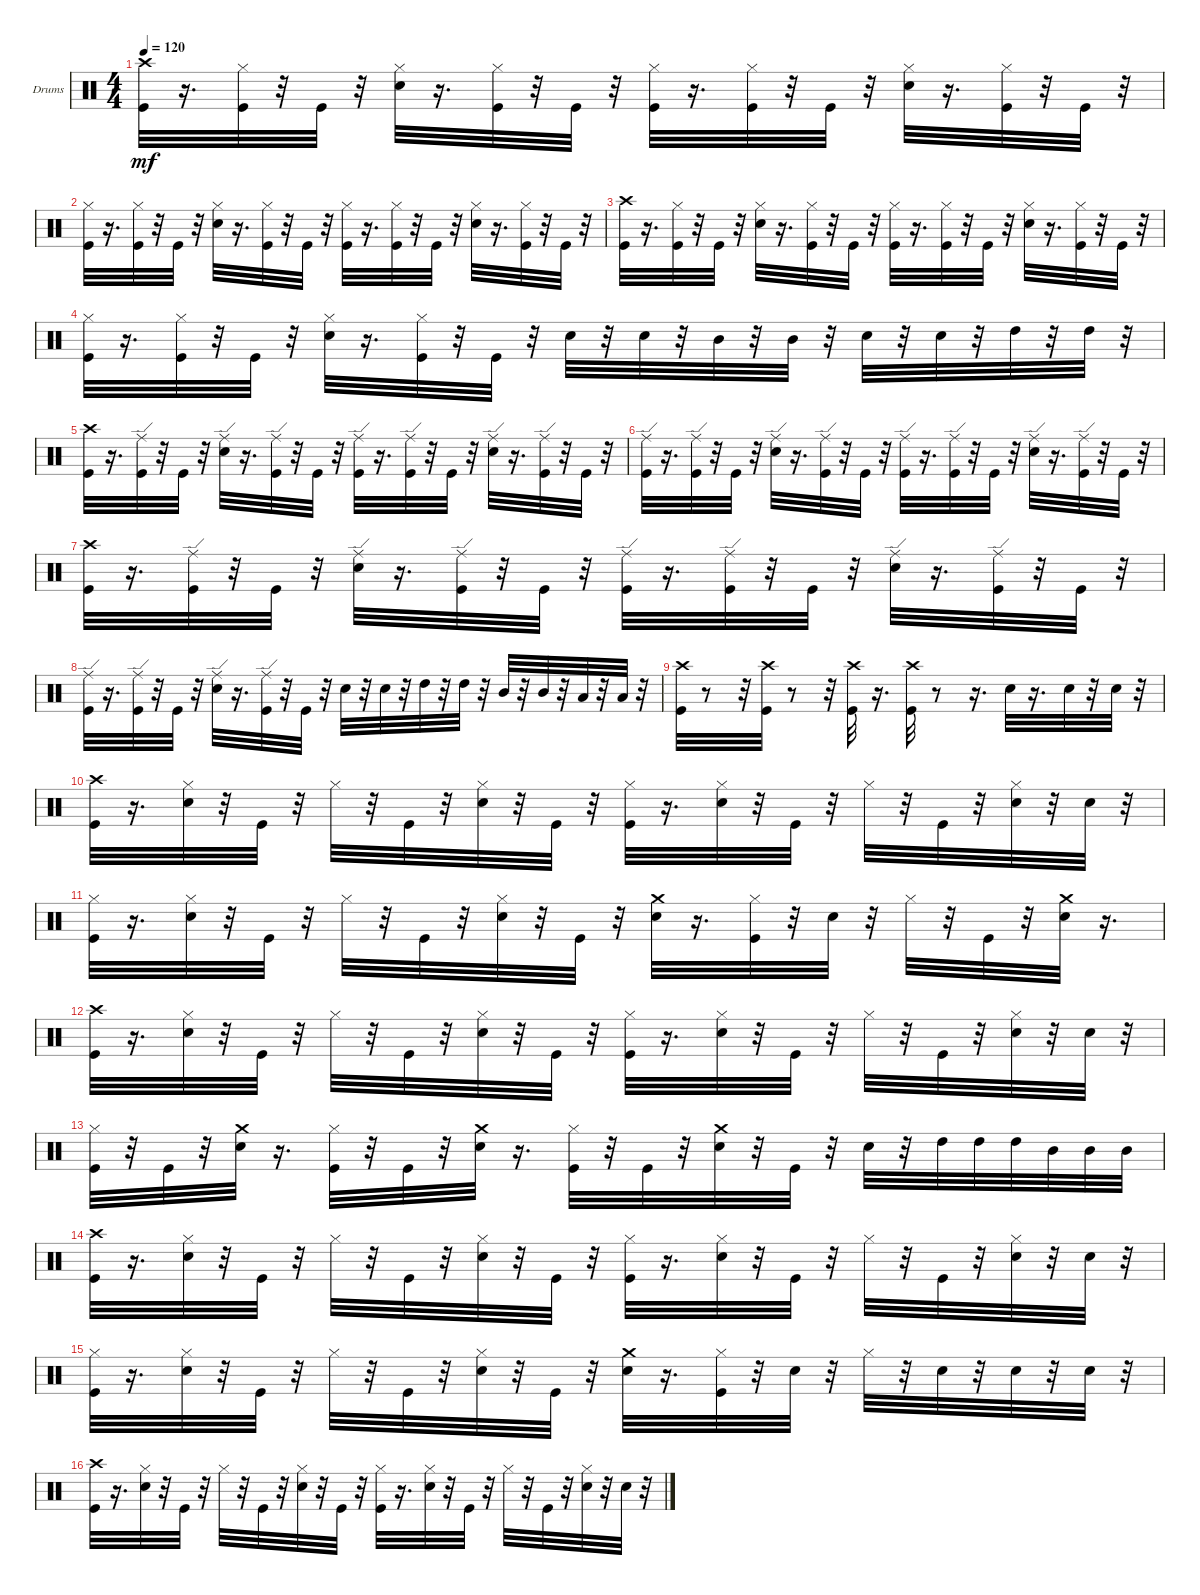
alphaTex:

\bracketExtendMode groupsimilarinstruments
\firstSystemTrackNameOrientation horizontal
\otherSystemsTrackNameOrientation horizontal
\track ("" "Drums") {instrument percussion}
\staff {score}
\articulation defaults
\ts (4 4)
\tempo 120
\clef neutral
\ks c
("Crash high (hit)" "Kick (hit)").32{dy mf} r.16{d} ("Hi-Hat (closed)" "Kick (hit)").32 r.32 "Kick (hit)".32 r.32 ("Hi-Hat (closed)" "Snare (hit) 2").32 r.16{d} ("Hi-Hat (closed)" "Kick (hit)").32 r.32 "Kick (hit)".32 r.32 ("Hi-Hat (closed)" "Kick (hit)").32 r.16{d} ("Hi-Hat (closed)" "Kick (hit)").32 r.32 "Kick (hit)".32 r.32 ("Hi-Hat (closed)" "Snare (hit) 2").32 r.16{d} ("Hi-Hat (closed)" "Kick (hit)").32 r.32 "Kick (hit)".32 r.32 |
("Hi-Hat (closed)" "Kick (hit)").32 r.16{d} ("Hi-Hat (closed)" "Kick (hit)").32 r.32 "Kick (hit)".32 r.32 ("Hi-Hat (closed)" "Snare (hit) 2").32 r.16{d} ("Hi-Hat (closed)" "Kick (hit)").32 r.32 "Kick (hit)".32 r.32 ("Hi-Hat (closed)" "Kick (hit)").32 r.16{d} ("Hi-Hat (closed)" "Kick (hit)").32 r.32 "Kick (hit)".32 r.32 ("Hi-Hat (closed)" "Snare (hit) 2").32 r.16{d} ("Hi-Hat (closed)" "Kick (hit)").32 r.32 "Kick (hit)".32 r.32 |
("Crash high (hit)" "Kick (hit)").32 r.16{d} ("Hi-Hat (closed)" "Kick (hit)").32 r.32 "Kick (hit)".32 r.32 ("Hi-Hat (closed)" "Snare (hit) 2").32 r.16{d} ("Hi-Hat (closed)" "Kick (hit)").32 r.32 "Kick (hit)".32 r.32 ("Hi-Hat (closed)" "Kick (hit)").32 r.16{d} ("Hi-Hat (closed)" "Kick (hit)").32 r.32 "Kick (hit)".32 r.32 ("Hi-Hat (closed)" "Snare (hit) 2").32 r.16{d} ("Hi-Hat (closed)" "Kick (hit)").32 r.32 "Kick (hit)".32 r.32 |
("Hi-Hat (closed)" "Kick (hit)").32 r.16{d} ("Hi-Hat (closed)" "Kick (hit)").32 r.32 "Kick (hit)".32 r.32 ("Hi-Hat (closed)" "Snare (hit) 2").32 r.16{d} ("Hi-Hat (closed)" "Kick (hit)").32 r.32 "Kick (hit)".32 r.32 "Snare (hit) 2".32 r.32 "Snare (hit) 2".32 r.32 "Mid Tom (hit)".32 r.32 "Mid Tom (hit)".32 r.32 "Snare (hit) 2".32 r.32 "Snare (hit) 2".32 r.32 "High Tom (hit)".32 r.32 "High Tom (hit)".32 r.32 |
("Crash high (hit)" "Kick (hit)").32 r.16{d} ("Ride (edge)" "Kick (hit)").32 r.32 "Kick (hit)".32 r.32 ("Ride (edge)" "Snare (hit) 2").32 r.16{d} ("Ride (edge)" "Kick (hit)").32 r.32 "Kick (hit)".32 r.32 ("Ride (edge)" "Kick (hit)").32 r.16{d} ("Ride (edge)" "Kick (hit)").32 r.32 "Kick (hit)".32 r.32 ("Ride (edge)" "Snare (hit) 2").32 r.16{d} ("Ride (edge)" "Kick (hit)").32 r.32 "Kick (hit)".32 r.32 |
("Ride (edge)" "Kick (hit)").32 r.16{d} ("Ride (edge)" "Kick (hit)").32 r.32 "Kick (hit)".32 r.32 ("Ride (edge)" "Snare (hit) 2").32 r.16{d} ("Ride (edge)" "Kick (hit)").32 r.32 "Kick (hit)".32 r.32 ("Ride (edge)" "Kick (hit)").32 r.16{d} ("Ride (edge)" "Kick (hit)").32 r.32 "Kick (hit)".32 r.32 ("Ride (edge)" "Snare (hit) 2").32 r.16{d} ("Ride (edge)" "Kick (hit)").32 r.32 "Kick (hit)".32 r.32 |
("Crash high (hit)" "Kick (hit)").32 r.16{d} ("Ride (edge)" "Kick (hit)").32 r.32 "Kick (hit)".32 r.32 ("Ride (edge)" "Snare (hit) 2").32 r.16{d} ("Ride (edge)" "Kick (hit)").32 r.32 "Kick (hit)".32 r.32 ("Ride (edge)" "Kick (hit)").32 r.16{d} ("Ride (edge)" "Kick (hit)").32 r.32 "Kick (hit)".32 r.32 ("Ride (edge)" "Snare (hit) 2").32 r.16{d} ("Ride (edge)" "Kick (hit)").32 r.32 "Kick (hit)".32 r.32 |
("Ride (edge)" "Kick (hit)").32 r.16{d} ("Ride (edge)" "Kick (hit)").32 r.32 "Kick (hit)".32 r.32 ("Ride (edge)" "Snare (hit) 2").32 r.16{d} ("Ride (edge)" "Kick (hit)").32 r.32 "Kick (hit)".32 r.32 "Snare (hit) 2".32 r.32 "Snare (hit) 2".32 r.32 "High Tom (hit)".32 r.32 "High Tom (hit)".32 r.32 "Mid Tom (hit)".32 r.32 "Mid Tom (hit)".32 r.32 "Low Tom (hit)".32 r.32 "Low Tom (hit)".32 r.32 |
("Crash high (hit)" "Kick (hit)").32 r.8 r.32 ("Crash high (hit)" "Kick (hit)").32 r.8 r.32 ("Crash high (hit)" "Kick (hit)").32 r.16{d} ("Crash high (hit)" "Kick (hit)").32 r.8 r.16{d} "Snare (hit) 2".32 r.16{d} "Snare (hit) 2".32 r.32 "Snare (hit) 2".32 r.32 |
("Crash high (hit)" "Kick (hit)").32 r.16{d} ("Snare (hit) 2" "Hi-Hat (closed)").32 r.32 "Kick (hit)".32 r.32 "Hi-Hat (closed)".32 r.32 "Kick (hit)".32 r.32 ("Snare (hit) 2" "Hi-Hat (closed)").32 r.32 "Kick (hit)".32 r.32 ("Kick (hit)" "Hi-Hat (closed)").32 r.16{d} ("Snare (hit) 2" "Hi-Hat (closed)").32 r.32 "Kick (hit)".32 r.32 "Hi-Hat (closed)".32 r.32 "Kick (hit)".32 r.32 ("Snare (hit) 2" "Hi-Hat (closed)").32 r.32 "Snare (hit) 2".32 r.32 |
("Hi-Hat (closed)" "Kick (hit)").32 r.16{d} ("Snare (hit) 2" "Hi-Hat (closed)").32 r.32 "Kick (hit)".32 r.32 "Hi-Hat (closed)".32 r.32 "Kick (hit)".32 r.32 ("Snare (hit) 2" "Hi-Hat (closed)").32 r.32 "Kick (hit)".32 r.32 ("Crash medium (hit)" "Snare (hit) 2").32 r.16{d} ("Kick (hit)" "Hi-Hat (closed)").32 r.32 "Snare (hit) 2".32 r.32 "Hi-Hat (closed)".32 r.32 "Kick (hit)".32 r.32 ("Crash medium (hit)" "Snare (hit) 2").32 r.16{d} |
("Crash high (hit)" "Kick (hit)").32 r.16{d} ("Snare (hit) 2" "Hi-Hat (closed)").32 r.32 "Kick (hit)".32 r.32 "Hi-Hat (closed)".32 r.32 "Kick (hit)".32 r.32 ("Snare (hit) 2" "Hi-Hat (closed)").32 r.32 "Kick (hit)".32 r.32 ("Kick (hit)" "Hi-Hat (closed)").32 r.16{d} ("Snare (hit) 2" "Hi-Hat (closed)").32 r.32 "Kick (hit)".32 r.32 "Hi-Hat (closed)".32 r.32 "Kick (hit)".32 r.32 ("Snare (hit) 2" "Hi-Hat (closed)").32 r.32 "Snare (hit) 2".32 r.32 |
("Hi-Hat (closed)" "Kick (hit)").32 r.32 "Kick (hit)".32 r.32 ("Crash medium (hit)" "Snare (hit) 2").32 r.16{d} ("Hi-Hat (closed)" "Kick (hit)").32 r.32 "Kick (hit)".32 r.32 ("Crash medium (hit)" "Snare (hit) 2").32 r.16{d} ("Hi-Hat (closed)" "Kick (hit)").32 r.32 "Kick (hit)".32 r.32 ("Crash medium (hit)" "Snare (hit) 2").32 r.32 "Kick (hit)".32 r.32 "Snare (hit) 2".32 r.32 "High Tom (hit)".32 "High Tom (hit)".32 "High Tom (hit)".32 "Mid Tom (hit)".32 "Mid Tom (hit)".32 "Mid Tom (hit)".32 |
("Crash high (hit)" "Kick (hit)").32 r.16{d} ("Snare (hit) 2" "Hi-Hat (closed)").32 r.32 "Kick (hit)".32 r.32 "Hi-Hat (closed)".32 r.32 "Kick (hit)".32 r.32 ("Snare (hit) 2" "Hi-Hat (closed)").32 r.32 "Kick (hit)".32 r.32 ("Kick (hit)" "Hi-Hat (closed)").32 r.16{d} ("Snare (hit) 2" "Hi-Hat (closed)").32 r.32 "Kick (hit)".32 r.32 "Hi-Hat (closed)".32 r.32 "Kick (hit)".32 r.32 ("Snare (hit) 2" "Hi-Hat (closed)").32 r.32 "Snare (hit) 2".32 r.32 |
("Hi-Hat (closed)" "Kick (hit)").32 r.16{d} ("Snare (hit) 2" "Hi-Hat (closed)").32 r.32 "Kick (hit)".32 r.32 "Hi-Hat (closed)".32 r.32 "Kick (hit)".32 r.32 ("Snare (hit) 2" "Hi-Hat (closed)").32 r.32 "Kick (hit)".32 r.32 ("Crash medium (hit)" "Snare (hit) 2").32 r.16{d} ("Kick (hit)" "Hi-Hat (closed)").32 r.32 "Snare (hit) 2".32 r.32 "Hi-Hat (closed)".32 r.32 "Snare (hit) 2".32 r.32 "Snare (hit) 2".32 r.32 "Snare (hit) 2".32 r.32 |
("Crash high (hit)" "Kick (hit)").32 r.16{d} ("Snare (hit) 2" "Hi-Hat (closed)").32 r.32 "Kick (hit)".32 r.32 "Hi-Hat (closed)".32 r.32 "Kick (hit)".32 r.32 ("Snare (hit) 2" "Hi-Hat (closed)").32 r.32 "Kick (hit)".32 r.32 ("Kick (hit)" "Hi-Hat (closed)").32 r.16{d} ("Snare (hit) 2" "Hi-Hat (closed)").32 r.32 "Kick (hit)".32 r.32 "Hi-Hat (closed)".32 r.32 "Kick (hit)".32 r.32 ("Snare (hit) 2" "Hi-Hat (closed)").32 r.32 "Snare (hit) 2".32 r.32
